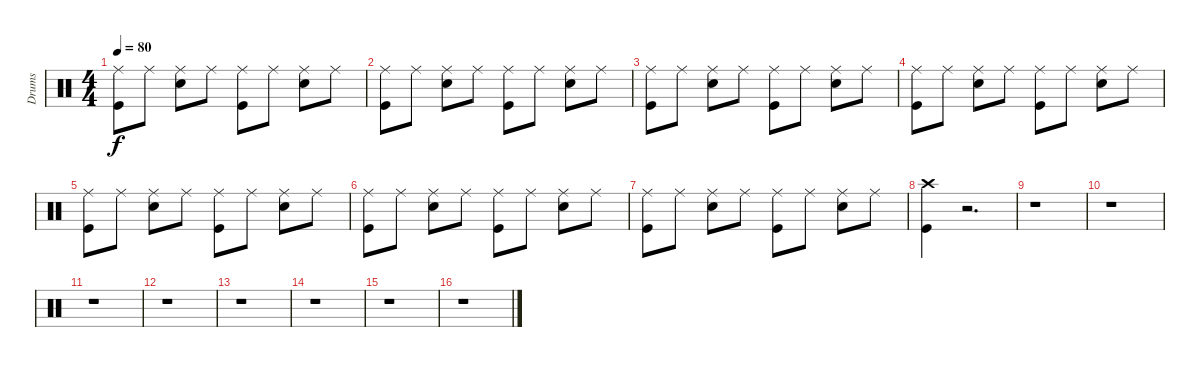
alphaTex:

\track ("Drums" "Drums") {instrument percussion}
\staff {score}
\articulation defaults
\ts (4 4)
\tempo 80
\clef neutral
\ks c
("Ride (middle)" "Kick (hit)").8{dy f} "Ride (middle)".8 ("Ride (middle)" "Snare (hit) 2").8 "Ride (middle)".8 ("Ride (middle)" "Kick (hit)").8 "Ride (middle)".8 ("Ride (middle)" "Snare (hit) 2").8 "Ride (middle)".8 |
("Ride (middle)" "Kick (hit)").8 "Ride (middle)".8 ("Ride (middle)" "Snare (hit) 2").8 "Ride (middle)".8 ("Ride (middle)" "Kick (hit)").8 "Ride (middle)".8 ("Ride (middle)" "Snare (hit) 2").8 "Ride (middle)".8 |
("Ride (middle)" "Kick (hit)").8 "Ride (middle)".8 ("Ride (middle)" "Snare (hit) 2").8 "Ride (middle)".8 ("Ride (middle)" "Kick (hit)").8 "Ride (middle)".8 ("Ride (middle)" "Snare (hit) 2").8 "Ride (middle)".8 |
("Ride (middle)" "Kick (hit)").8 "Ride (middle)".8 ("Ride (middle)" "Snare (hit) 2").8 "Ride (middle)".8 ("Ride (middle)" "Kick (hit)").8 "Ride (middle)".8 ("Ride (middle)" "Snare (hit) 2").8 "Ride (middle)".8 |
("Ride (middle)" "Kick (hit)").8 "Ride (middle)".8 ("Ride (middle)" "Snare (hit) 2").8 "Ride (middle)".8 ("Ride (middle)" "Kick (hit)").8 "Ride (middle)".8 ("Ride (middle)" "Snare (hit) 2").8 "Ride (middle)".8 |
("Ride (middle)" "Kick (hit)").8 "Ride (middle)".8 ("Ride (middle)" "Snare (hit) 2").8 "Ride (middle)".8 ("Ride (middle)" "Kick (hit)").8 "Ride (middle)".8 ("Ride (middle)" "Snare (hit) 2").8 "Ride (middle)".8 |
("Ride (middle)" "Kick (hit)").8 "Ride (middle)".8 ("Ride (middle)" "Snare (hit) 2").8 "Ride (middle)".8 ("Ride (middle)" "Kick (hit)").8 "Ride (middle)".8 ("Ride (middle)" "Snare (hit) 2").8 "Ride (middle)".8 |
("Crash high (hit)" "Kick (hit)").4 r.2{d} |
r.1 |
r.1 |
r.1 |
r.1 |
r.1 |
r.1 |
r.1 |
r.1
